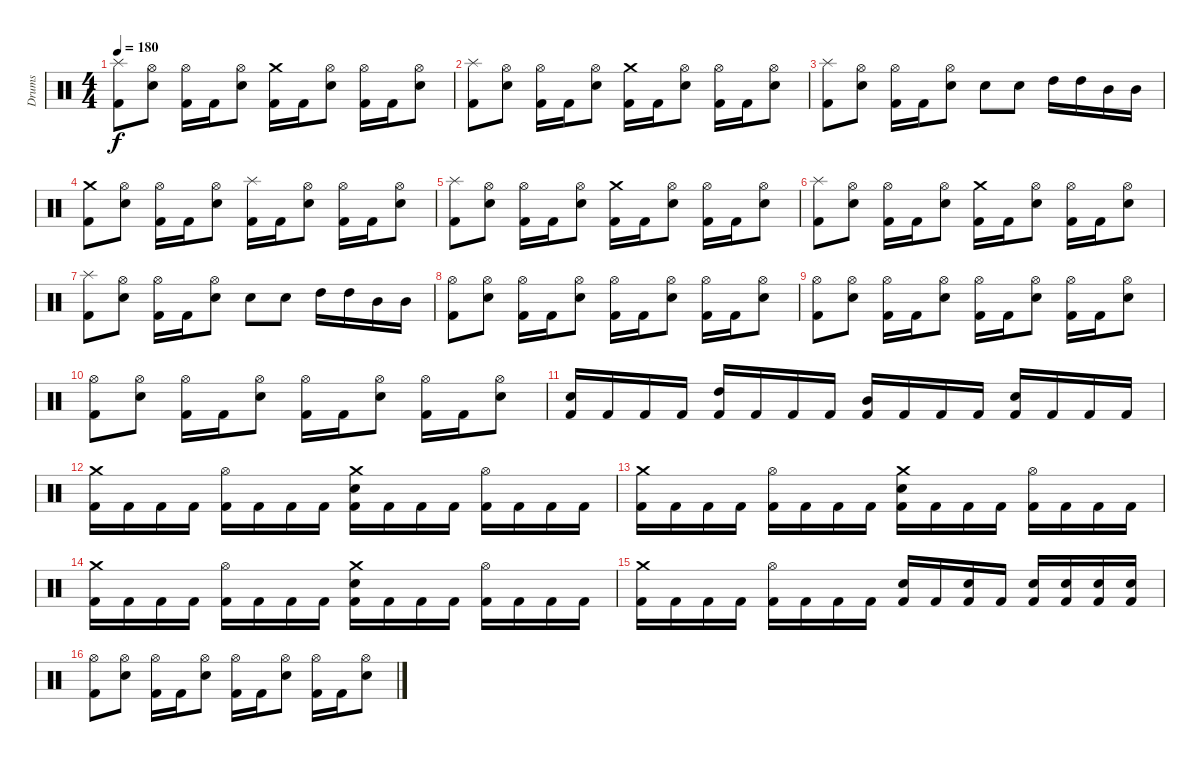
\track ("Drums" "Drums") {instrument percussion}
\staff {score}
\articulation defaults
\ts (4 4)
\tempo 180
\clef neutral
\ks c
("Splash (hit)" "Kick (hit) 2").8{dy f} ("Hi-Hat (open)" "Electric Snare (hit)").8 ("Hi-Hat (open)" "Kick (hit) 2").16 "Kick (hit) 2".16 ("Hi-Hat (open)" "Electric Snare (hit)").8 ("Crash medium (hit)" "Kick (hit) 2").16 "Kick (hit) 2".16 ("Hi-Hat (open)" "Electric Snare (hit)").8 ("Hi-Hat (open)" "Kick (hit) 2").16 "Kick (hit) 2".16 ("Hi-Hat (open)" "Electric Snare (hit)").8 |
("Splash (hit)" "Kick (hit) 2").8 ("Hi-Hat (open)" "Electric Snare (hit)").8 ("Hi-Hat (open)" "Kick (hit) 2").16 "Kick (hit) 2".16 ("Hi-Hat (open)" "Electric Snare (hit)").8 ("Crash medium (hit)" "Kick (hit) 2").16 "Kick (hit) 2".16 ("Hi-Hat (open)" "Electric Snare (hit)").8 ("Hi-Hat (open)" "Kick (hit) 2").16 "Kick (hit) 2".16 ("Hi-Hat (open)" "Electric Snare (hit)").8 |
("Splash (hit)" "Kick (hit) 2").8 ("Hi-Hat (open)" "Electric Snare (hit)").8 ("Hi-Hat (open)" "Kick (hit) 2").16 "Kick (hit) 2".16 ("Hi-Hat (open)" "Electric Snare (hit)").8 "Electric Snare (hit)".8 "Electric Snare (hit)".8 "High Tom (hit)".16 "High Tom (hit)".16 "Mid Tom (hit)".16 "Mid Tom (hit)".16 |
("Crash medium (hit)" "Kick (hit) 2").8 ("Hi-Hat (open)" "Electric Snare (hit)").8 ("Hi-Hat (open)" "Kick (hit) 2").16 "Kick (hit) 2".16 ("Hi-Hat (open)" "Electric Snare (hit)").8 ("Splash (hit)" "Kick (hit) 2").16 "Kick (hit) 2".16 ("Hi-Hat (open)" "Electric Snare (hit)").8 ("Hi-Hat (open)" "Kick (hit) 2").16 "Kick (hit) 2".16 ("Hi-Hat (open)" "Electric Snare (hit)").8 |
("Splash (hit)" "Kick (hit) 2").8 ("Hi-Hat (open)" "Electric Snare (hit)").8 ("Hi-Hat (open)" "Kick (hit) 2").16 "Kick (hit) 2".16 ("Hi-Hat (open)" "Electric Snare (hit)").8 ("Crash medium (hit)" "Kick (hit) 2").16 "Kick (hit) 2".16 ("Hi-Hat (open)" "Electric Snare (hit)").8 ("Hi-Hat (open)" "Kick (hit) 2").16 "Kick (hit) 2".16 ("Hi-Hat (open)" "Electric Snare (hit)").8 |
("Splash (hit)" "Kick (hit) 2").8 ("Hi-Hat (open)" "Electric Snare (hit)").8 ("Hi-Hat (open)" "Kick (hit) 2").16 "Kick (hit) 2".16 ("Hi-Hat (open)" "Electric Snare (hit)").8 ("Crash medium (hit)" "Kick (hit) 2").16 "Kick (hit) 2".16 ("Hi-Hat (open)" "Electric Snare (hit)").8 ("Hi-Hat (open)" "Kick (hit) 2").16 "Kick (hit) 2".16 ("Hi-Hat (open)" "Electric Snare (hit)").8 |
("Splash (hit)" "Kick (hit) 2").8 ("Hi-Hat (open)" "Electric Snare (hit)").8 ("Hi-Hat (open)" "Kick (hit) 2").16 "Kick (hit) 2".16 ("Hi-Hat (open)" "Electric Snare (hit)").8 "Electric Snare (hit)".8 "Electric Snare (hit)".8 "High Tom (hit)".16 "High Tom (hit)".16 "Mid Tom (hit)".16 "Mid Tom (hit)".16 |
("Hi-Hat (open)" "Kick (hit) 2").8 ("Hi-Hat (open)" "Electric Snare (hit)").8 ("Hi-Hat (open)" "Kick (hit) 2").16 "Kick (hit) 2".16 ("Hi-Hat (open)" "Electric Snare (hit)").8 ("Hi-Hat (open)" "Kick (hit) 2").16 "Kick (hit) 2".16 ("Hi-Hat (open)" "Electric Snare (hit)").8 ("Hi-Hat (open)" "Kick (hit) 2").16 "Kick (hit) 2".16 ("Hi-Hat (open)" "Electric Snare (hit)").8 |
("Hi-Hat (open)" "Kick (hit) 2").8 ("Hi-Hat (open)" "Electric Snare (hit)").8 ("Hi-Hat (open)" "Kick (hit) 2").16 "Kick (hit) 2".16 ("Hi-Hat (open)" "Electric Snare (hit)").8 ("Hi-Hat (open)" "Kick (hit) 2").16 "Kick (hit) 2".16 ("Hi-Hat (open)" "Electric Snare (hit)").8 ("Hi-Hat (open)" "Kick (hit) 2").16 "Kick (hit) 2".16 ("Hi-Hat (open)" "Electric Snare (hit)").8 |
("Hi-Hat (open)" "Kick (hit) 2").8 ("Hi-Hat (open)" "Electric Snare (hit)").8 ("Hi-Hat (open)" "Kick (hit) 2").16 "Kick (hit) 2".16 ("Hi-Hat (open)" "Electric Snare (hit)").8 ("Hi-Hat (open)" "Kick (hit) 2").16 "Kick (hit) 2".16 ("Hi-Hat (open)" "Electric Snare (hit)").8 ("Hi-Hat (open)" "Kick (hit) 2").16 "Kick (hit) 2".16 ("Hi-Hat (open)" "Electric Snare (hit)").8 |
("Electric Snare (hit)" "Kick (hit) 2").16 "Kick (hit) 2".16 "Kick (hit) 2".16 "Kick (hit) 2".16 ("High Tom (hit)" "Kick (hit) 2").16 "Kick (hit) 2".16 "Kick (hit) 2".16 "Kick (hit) 2".16 ("Mid Tom (hit)" "Kick (hit) 2").16 "Kick (hit) 2".16 "Kick (hit) 2".16 "Kick (hit) 2".16 ("Electric Snare (hit)" "Kick (hit) 2").16 "Kick (hit) 2".16 "Kick (hit) 2".16 "Kick (hit) 2".16 |
("Crash medium (hit)" "Kick (hit) 2").16 "Kick (hit) 2".16 "Kick (hit) 2".16 "Kick (hit) 2".16 ("Hi-Hat (open)" "Kick (hit) 2").16 "Kick (hit) 2".16 "Kick (hit) 2".16 "Kick (hit) 2".16 ("Crash medium (hit)" "Electric Snare (hit)" "Kick (hit) 2").16 "Kick (hit) 2".16 "Kick (hit) 2".16 "Kick (hit) 2".16 ("Hi-Hat (open)" "Kick (hit) 2").16 "Kick (hit) 2".16 "Kick (hit) 2".16 "Kick (hit) 2".16 |
("Crash medium (hit)" "Kick (hit) 2").16 "Kick (hit) 2".16 "Kick (hit) 2".16 "Kick (hit) 2".16 ("Hi-Hat (open)" "Kick (hit) 2").16 "Kick (hit) 2".16 "Kick (hit) 2".16 "Kick (hit) 2".16 ("Crash medium (hit)" "Electric Snare (hit)" "Kick (hit) 2").16 "Kick (hit) 2".16 "Kick (hit) 2".16 "Kick (hit) 2".16 ("Hi-Hat (open)" "Kick (hit) 2").16 "Kick (hit) 2".16 "Kick (hit) 2".16 "Kick (hit) 2".16 |
("Crash medium (hit)" "Kick (hit) 2").16 "Kick (hit) 2".16 "Kick (hit) 2".16 "Kick (hit) 2".16 ("Hi-Hat (open)" "Kick (hit) 2").16 "Kick (hit) 2".16 "Kick (hit) 2".16 "Kick (hit) 2".16 ("Crash medium (hit)" "Electric Snare (hit)" "Kick (hit) 2").16 "Kick (hit) 2".16 "Kick (hit) 2".16 "Kick (hit) 2".16 ("Hi-Hat (open)" "Kick (hit) 2").16 "Kick (hit) 2".16 "Kick (hit) 2".16 "Kick (hit) 2".16 |
("Crash medium (hit)" "Kick (hit) 2").16 "Kick (hit) 2".16 "Kick (hit) 2".16 "Kick (hit) 2".16 ("Hi-Hat (open)" "Kick (hit) 2").16 "Kick (hit) 2".16 "Kick (hit) 2".16 "Kick (hit) 2".16 ("Electric Snare (hit)" "Kick (hit) 2").16 "Kick (hit) 2".16 ("Electric Snare (hit)" "Kick (hit) 2").16 "Kick (hit) 2".16 ("Electric Snare (hit)" "Kick (hit) 2").16 ("Electric Snare (hit)" "Kick (hit) 2").16 ("Electric Snare (hit)" "Kick (hit) 2").16 ("Electric Snare (hit)" "Kick (hit) 2").16 |
("Hi-Hat (open)" "Kick (hit) 2").8 ("Hi-Hat (open)" "Electric Snare (hit)").8 ("Hi-Hat (open)" "Kick (hit) 2").16 "Kick (hit) 2".16 ("Hi-Hat (open)" "Electric Snare (hit)").8 ("Hi-Hat (open)" "Kick (hit) 2").16 "Kick (hit) 2".16 ("Hi-Hat (open)" "Electric Snare (hit)").8 ("Hi-Hat (open)" "Kick (hit) 2").16 "Kick (hit) 2".16 ("Hi-Hat (open)" "Electric Snare (hit)").8
